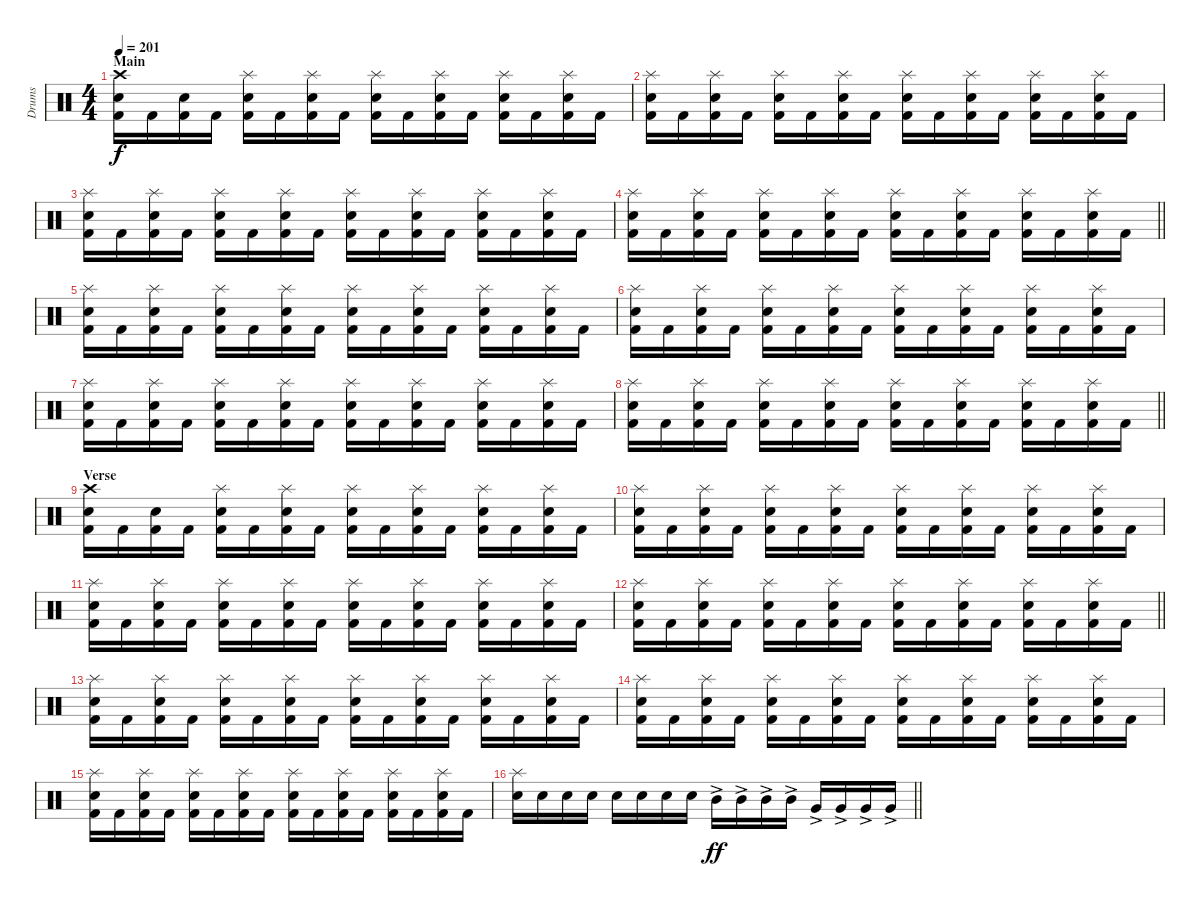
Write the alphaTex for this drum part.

\track ("Drums" "Drums") {instrument percussion}
\staff {score}
\articulation defaults
\ts (4 4)
\section ("" "Main")
\tempo 201
\clef neutral
\ks c
("Kick (hit) 2" "Snare (hit) 2" "Crash high (hit)").16{dy f} "Kick (hit) 2".16 ("Kick (hit) 2" "Snare (hit) 2").16 "Kick (hit) 2".16 ("Kick (hit) 2" "Snare (hit) 2" "Splash (hit)").16 "Kick (hit) 2".16 ("Kick (hit) 2" "Snare (hit) 2" "Splash (hit)").16 "Kick (hit) 2".16 ("Kick (hit) 2" "Snare (hit) 2" "Splash (hit)").16 "Kick (hit) 2".16 ("Kick (hit) 2" "Snare (hit) 2" "Splash (hit)").16 "Kick (hit) 2".16 ("Kick (hit) 2" "Snare (hit) 2" "Splash (hit)").16 "Kick (hit) 2".16 ("Kick (hit) 2" "Snare (hit) 2" "Splash (hit)").16 "Kick (hit) 2".16 |
("Kick (hit) 2" "Snare (hit) 2" "Splash (hit)").16 "Kick (hit) 2".16 ("Kick (hit) 2" "Snare (hit) 2" "Splash (hit)").16 "Kick (hit) 2".16 ("Kick (hit) 2" "Snare (hit) 2" "Splash (hit)").16 "Kick (hit) 2".16 ("Kick (hit) 2" "Snare (hit) 2" "Splash (hit)").16 "Kick (hit) 2".16 ("Kick (hit) 2" "Snare (hit) 2" "Splash (hit)").16 "Kick (hit) 2".16 ("Kick (hit) 2" "Snare (hit) 2" "Splash (hit)").16 "Kick (hit) 2".16 ("Kick (hit) 2" "Snare (hit) 2" "Splash (hit)").16 "Kick (hit) 2".16 ("Kick (hit) 2" "Snare (hit) 2" "Splash (hit)").16 "Kick (hit) 2".16 |
("Kick (hit) 2" "Snare (hit) 2" "Splash (hit)").16 "Kick (hit) 2".16 ("Kick (hit) 2" "Snare (hit) 2" "Splash (hit)").16 "Kick (hit) 2".16 ("Kick (hit) 2" "Snare (hit) 2" "Splash (hit)").16 "Kick (hit) 2".16 ("Kick (hit) 2" "Snare (hit) 2" "Splash (hit)").16 "Kick (hit) 2".16 ("Kick (hit) 2" "Snare (hit) 2" "Splash (hit)").16 "Kick (hit) 2".16 ("Kick (hit) 2" "Snare (hit) 2" "Splash (hit)").16 "Kick (hit) 2".16 ("Kick (hit) 2" "Snare (hit) 2" "Splash (hit)").16 "Kick (hit) 2".16 ("Kick (hit) 2" "Snare (hit) 2" "Splash (hit)").16 "Kick (hit) 2".16 |
\barLineRight lightlight
("Kick (hit) 2" "Snare (hit) 2" "Splash (hit)").16 "Kick (hit) 2".16 ("Kick (hit) 2" "Snare (hit) 2" "Splash (hit)").16 "Kick (hit) 2".16 ("Kick (hit) 2" "Snare (hit) 2" "Splash (hit)").16 "Kick (hit) 2".16 ("Kick (hit) 2" "Snare (hit) 2" "Splash (hit)").16 "Kick (hit) 2".16 ("Kick (hit) 2" "Snare (hit) 2" "Splash (hit)").16 "Kick (hit) 2".16 ("Kick (hit) 2" "Snare (hit) 2" "Splash (hit)").16 "Kick (hit) 2".16 ("Kick (hit) 2" "Snare (hit) 2" "Splash (hit)").16 "Kick (hit) 2".16 ("Kick (hit) 2" "Snare (hit) 2" "Splash (hit)").16 "Kick (hit) 2".16 |
\section ("" "")
("Kick (hit) 2" "Snare (hit) 2" "Splash (hit)").16 "Kick (hit) 2".16 ("Kick (hit) 2" "Snare (hit) 2" "Splash (hit)").16 "Kick (hit) 2".16 ("Kick (hit) 2" "Snare (hit) 2" "Splash (hit)").16 "Kick (hit) 2".16 ("Kick (hit) 2" "Snare (hit) 2" "Splash (hit)").16 "Kick (hit) 2".16 ("Kick (hit) 2" "Snare (hit) 2" "Splash (hit)").16 "Kick (hit) 2".16 ("Kick (hit) 2" "Snare (hit) 2" "Splash (hit)").16 "Kick (hit) 2".16 ("Kick (hit) 2" "Snare (hit) 2" "Splash (hit)").16 "Kick (hit) 2".16 ("Kick (hit) 2" "Snare (hit) 2" "Splash (hit)").16 "Kick (hit) 2".16 |
("Kick (hit) 2" "Snare (hit) 2" "Splash (hit)").16 "Kick (hit) 2".16 ("Kick (hit) 2" "Snare (hit) 2" "Splash (hit)").16 "Kick (hit) 2".16 ("Kick (hit) 2" "Snare (hit) 2" "Splash (hit)").16 "Kick (hit) 2".16 ("Kick (hit) 2" "Snare (hit) 2" "Splash (hit)").16 "Kick (hit) 2".16 ("Kick (hit) 2" "Snare (hit) 2" "Splash (hit)").16 "Kick (hit) 2".16 ("Kick (hit) 2" "Snare (hit) 2" "Splash (hit)").16 "Kick (hit) 2".16 ("Kick (hit) 2" "Snare (hit) 2" "Splash (hit)").16 "Kick (hit) 2".16 ("Kick (hit) 2" "Snare (hit) 2" "Splash (hit)").16 "Kick (hit) 2".16 |
("Kick (hit) 2" "Snare (hit) 2" "Splash (hit)").16 "Kick (hit) 2".16 ("Kick (hit) 2" "Snare (hit) 2" "Splash (hit)").16 "Kick (hit) 2".16 ("Kick (hit) 2" "Snare (hit) 2" "Splash (hit)").16 "Kick (hit) 2".16 ("Kick (hit) 2" "Snare (hit) 2" "Splash (hit)").16 "Kick (hit) 2".16 ("Kick (hit) 2" "Snare (hit) 2" "Splash (hit)").16 "Kick (hit) 2".16 ("Kick (hit) 2" "Snare (hit) 2" "Splash (hit)").16 "Kick (hit) 2".16 ("Kick (hit) 2" "Snare (hit) 2" "Splash (hit)").16 "Kick (hit) 2".16 ("Kick (hit) 2" "Snare (hit) 2" "Splash (hit)").16 "Kick (hit) 2".16 |
\barLineRight lightlight
("Kick (hit) 2" "Snare (hit) 2" "Splash (hit)").16 "Kick (hit) 2".16 ("Kick (hit) 2" "Snare (hit) 2" "Splash (hit)").16 "Kick (hit) 2".16 ("Kick (hit) 2" "Snare (hit) 2" "Splash (hit)").16 "Kick (hit) 2".16 ("Kick (hit) 2" "Snare (hit) 2" "Splash (hit)").16 "Kick (hit) 2".16 ("Kick (hit) 2" "Snare (hit) 2" "Splash (hit)").16 "Kick (hit) 2".16 ("Kick (hit) 2" "Snare (hit) 2" "Splash (hit)").16 "Kick (hit) 2".16 ("Kick (hit) 2" "Snare (hit) 2" "Splash (hit)").16 "Kick (hit) 2".16 ("Kick (hit) 2" "Snare (hit) 2" "Splash (hit)").16 "Kick (hit) 2".16 |
\section ("" "Verse")
("Kick (hit) 2" "Snare (hit) 2" "Crash high (hit)").16 "Kick (hit) 2".16 ("Kick (hit) 2" "Snare (hit) 2").16 "Kick (hit) 2".16 ("Kick (hit) 2" "Snare (hit) 2" "Splash (hit)").16 "Kick (hit) 2".16 ("Kick (hit) 2" "Snare (hit) 2" "Splash (hit)").16 "Kick (hit) 2".16 ("Kick (hit) 2" "Snare (hit) 2" "Splash (hit)").16 "Kick (hit) 2".16 ("Kick (hit) 2" "Snare (hit) 2" "Splash (hit)").16 "Kick (hit) 2".16 ("Kick (hit) 2" "Snare (hit) 2" "Splash (hit)").16 "Kick (hit) 2".16 ("Kick (hit) 2" "Snare (hit) 2" "Splash (hit)").16 "Kick (hit) 2".16 |
("Kick (hit) 2" "Snare (hit) 2" "Splash (hit)").16 "Kick (hit) 2".16 ("Kick (hit) 2" "Snare (hit) 2" "Splash (hit)").16 "Kick (hit) 2".16 ("Kick (hit) 2" "Snare (hit) 2" "Splash (hit)").16 "Kick (hit) 2".16 ("Kick (hit) 2" "Snare (hit) 2" "Splash (hit)").16 "Kick (hit) 2".16 ("Kick (hit) 2" "Snare (hit) 2" "Splash (hit)").16 "Kick (hit) 2".16 ("Kick (hit) 2" "Snare (hit) 2" "Splash (hit)").16 "Kick (hit) 2".16 ("Kick (hit) 2" "Snare (hit) 2" "Splash (hit)").16 "Kick (hit) 2".16 ("Kick (hit) 2" "Snare (hit) 2" "Splash (hit)").16 "Kick (hit) 2".16 |
("Kick (hit) 2" "Snare (hit) 2" "Splash (hit)").16 "Kick (hit) 2".16 ("Kick (hit) 2" "Snare (hit) 2" "Splash (hit)").16 "Kick (hit) 2".16 ("Kick (hit) 2" "Snare (hit) 2" "Splash (hit)").16 "Kick (hit) 2".16 ("Kick (hit) 2" "Snare (hit) 2" "Splash (hit)").16 "Kick (hit) 2".16 ("Kick (hit) 2" "Snare (hit) 2" "Splash (hit)").16 "Kick (hit) 2".16 ("Kick (hit) 2" "Snare (hit) 2" "Splash (hit)").16 "Kick (hit) 2".16 ("Kick (hit) 2" "Snare (hit) 2" "Splash (hit)").16 "Kick (hit) 2".16 ("Kick (hit) 2" "Snare (hit) 2" "Splash (hit)").16 "Kick (hit) 2".16 |
\barLineRight lightlight
("Kick (hit) 2" "Snare (hit) 2" "Splash (hit)").16 "Kick (hit) 2".16 ("Kick (hit) 2" "Snare (hit) 2" "Splash (hit)").16 "Kick (hit) 2".16 ("Kick (hit) 2" "Snare (hit) 2" "Splash (hit)").16 "Kick (hit) 2".16 ("Kick (hit) 2" "Snare (hit) 2" "Splash (hit)").16 "Kick (hit) 2".16 ("Kick (hit) 2" "Snare (hit) 2" "Splash (hit)").16 "Kick (hit) 2".16 ("Kick (hit) 2" "Snare (hit) 2" "Splash (hit)").16 "Kick (hit) 2".16 ("Kick (hit) 2" "Snare (hit) 2" "Splash (hit)").16 "Kick (hit) 2".16 ("Kick (hit) 2" "Snare (hit) 2" "Splash (hit)").16 "Kick (hit) 2".16 |
\section ("" "")
("Kick (hit) 2" "Snare (hit) 2" "Splash (hit)").16 "Kick (hit) 2".16 ("Kick (hit) 2" "Snare (hit) 2" "Splash (hit)").16 "Kick (hit) 2".16 ("Kick (hit) 2" "Snare (hit) 2" "Splash (hit)").16 "Kick (hit) 2".16 ("Kick (hit) 2" "Snare (hit) 2" "Splash (hit)").16 "Kick (hit) 2".16 ("Kick (hit) 2" "Snare (hit) 2" "Splash (hit)").16 "Kick (hit) 2".16 ("Kick (hit) 2" "Snare (hit) 2" "Splash (hit)").16 "Kick (hit) 2".16 ("Kick (hit) 2" "Snare (hit) 2" "Splash (hit)").16 "Kick (hit) 2".16 ("Kick (hit) 2" "Snare (hit) 2" "Splash (hit)").16 "Kick (hit) 2".16 |
("Kick (hit) 2" "Snare (hit) 2" "Splash (hit)").16 "Kick (hit) 2".16 ("Kick (hit) 2" "Snare (hit) 2" "Splash (hit)").16 "Kick (hit) 2".16 ("Kick (hit) 2" "Snare (hit) 2" "Splash (hit)").16 "Kick (hit) 2".16 ("Kick (hit) 2" "Snare (hit) 2" "Splash (hit)").16 "Kick (hit) 2".16 ("Kick (hit) 2" "Snare (hit) 2" "Splash (hit)").16 "Kick (hit) 2".16 ("Kick (hit) 2" "Snare (hit) 2" "Splash (hit)").16 "Kick (hit) 2".16 ("Kick (hit) 2" "Snare (hit) 2" "Splash (hit)").16 "Kick (hit) 2".16 ("Kick (hit) 2" "Snare (hit) 2" "Splash (hit)").16 "Kick (hit) 2".16 |
("Kick (hit) 2" "Snare (hit) 2" "Splash (hit)").16 "Kick (hit) 2".16 ("Kick (hit) 2" "Snare (hit) 2" "Splash (hit)").16 "Kick (hit) 2".16 ("Kick (hit) 2" "Snare (hit) 2" "Splash (hit)").16 "Kick (hit) 2".16 ("Kick (hit) 2" "Snare (hit) 2" "Splash (hit)").16 "Kick (hit) 2".16 ("Kick (hit) 2" "Snare (hit) 2" "Splash (hit)").16 "Kick (hit) 2".16 ("Kick (hit) 2" "Snare (hit) 2" "Splash (hit)").16 "Kick (hit) 2".16 ("Kick (hit) 2" "Snare (hit) 2" "Splash (hit)").16 "Kick (hit) 2".16 ("Kick (hit) 2" "Snare (hit) 2" "Splash (hit)").16 "Kick (hit) 2".16 |
\barLineRight lightlight
("Snare (hit) 2" "Splash (hit)").16 "Snare (hit) 2".16 "Snare (hit) 2".16 "Snare (hit) 2".16 "Snare (hit) 2".16 "Snare (hit) 2".16 "Snare (hit) 2".16 "Snare (hit) 2".16 "Mid Tom (hit)"{ac}.16{dy ff} "Mid Tom (hit)"{ac}.16 "Mid Tom (hit)"{ac}.16 "Mid Tom (hit)"{ac}.16 "Very Low Tom (hit)"{ac}.16 "Very Low Tom (hit)"{ac}.16 "Very Low Tom (hit)"{ac}.16 "Very Low Tom (hit)"{ac}.16
